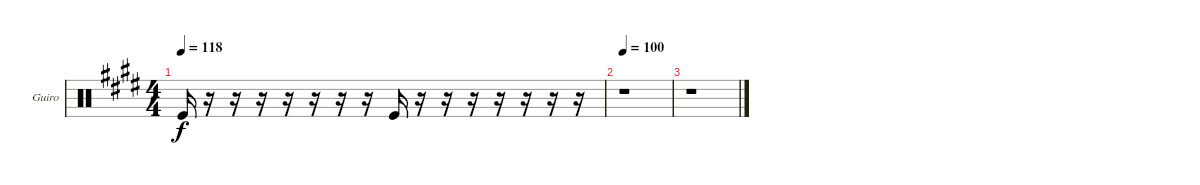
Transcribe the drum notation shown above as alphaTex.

\bracketExtendMode groupsimilarinstruments
\firstSystemTrackNameOrientation horizontal
\otherSystemsTrackNameOrientation horizontal
\track ("Guiro" "Guiro") {instrument percussion}
\staff {score}
\articulation defaults
\ts (4 4)
\tempo 118
\clef neutral
\ks e "Kick (hit)".16{dy f}
r.16 r.16 r.16 r.16 r.16 r.16 r.16 "Kick (hit)".16 r.16 r.16 r.16 r.16 r.16 r.16 r.16 |
\tempo 100
r.1 |
r.1
